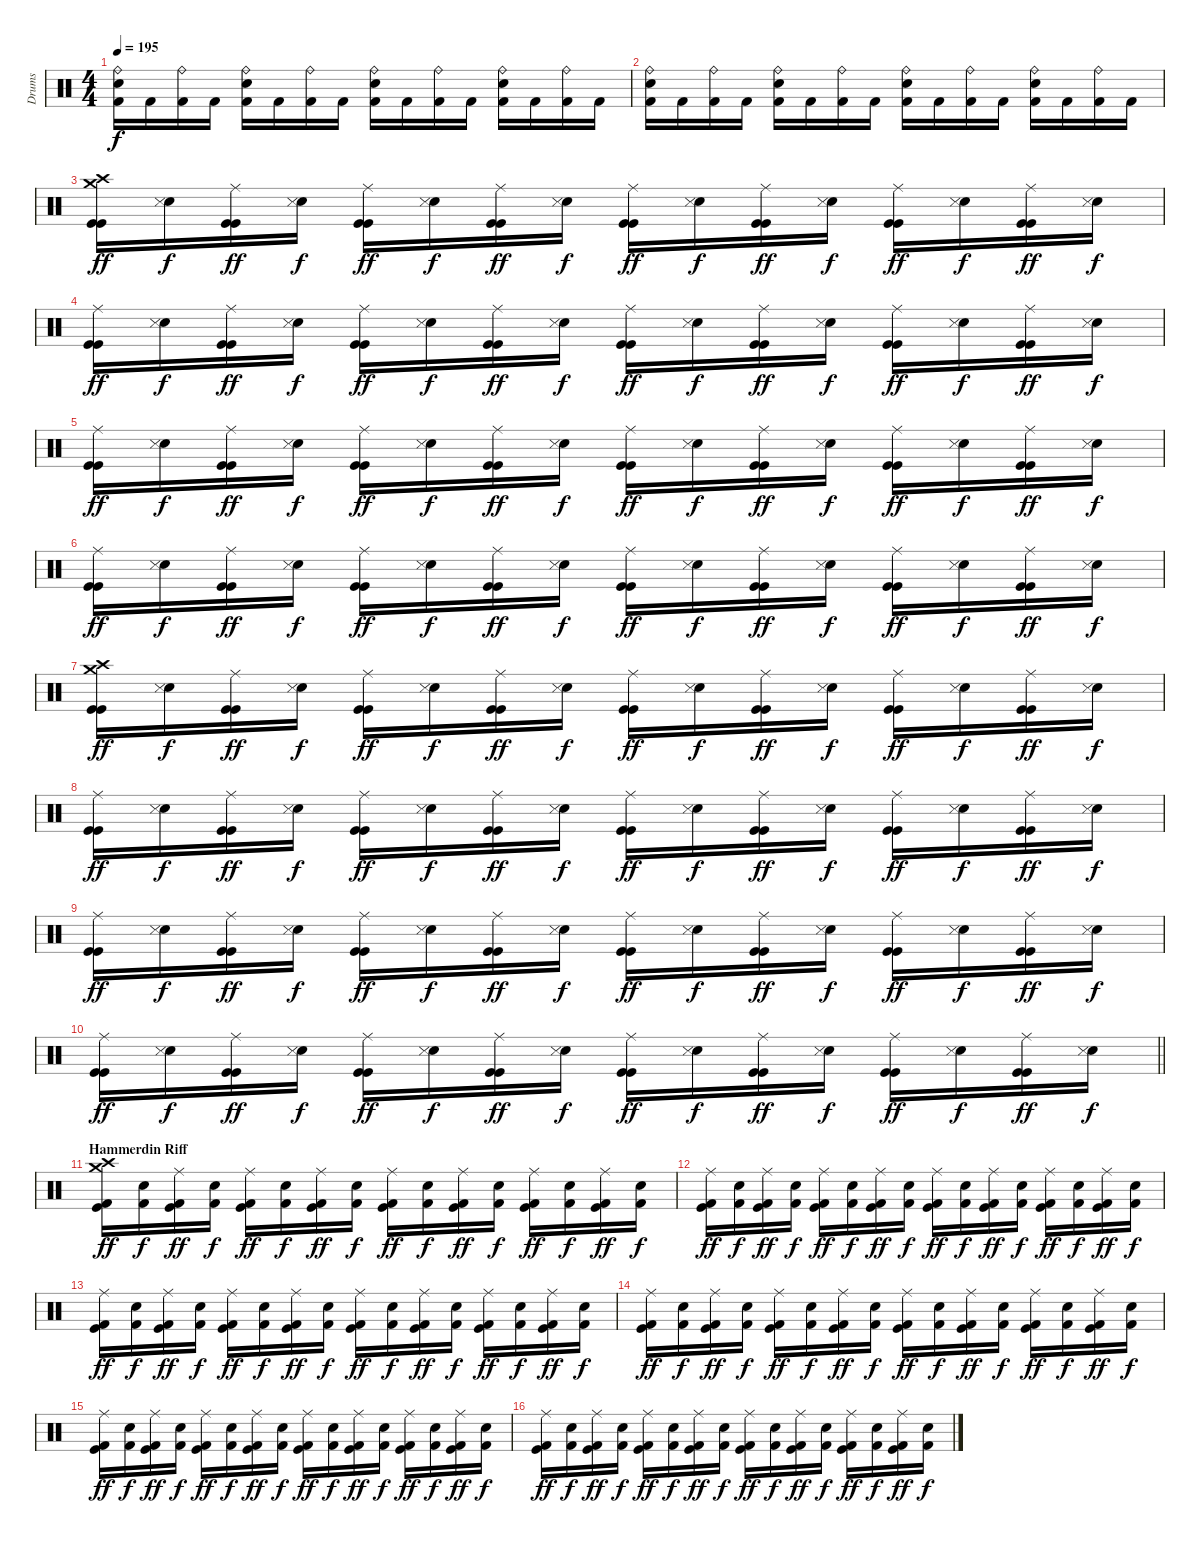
\track ("Drums" "Drums") {instrument percussion}
\staff {score}
\articulation defaults
\ts (4 4)
\tempo 195
\clef neutral
\ks c
("Ride (bell)" "Snare (hit) 2" "Kick (hit) 2").16{dy f} "Kick (hit) 2".16 ("Ride (bell)" "Kick (hit) 2").16 "Kick (hit) 2".16 ("Ride (bell)" "Snare (hit) 2" "Kick (hit) 2").16 "Kick (hit) 2".16 ("Ride (bell)" "Kick (hit) 2").16 "Kick (hit) 2".16 ("Ride (bell)" "Snare (hit) 2" "Kick (hit) 2").16 "Kick (hit) 2".16 ("Ride (bell)" "Kick (hit) 2").16 "Kick (hit) 2".16 ("Ride (bell)" "Snare (hit) 2" "Kick (hit) 2").16 "Kick (hit) 2".16 ("Ride (bell)" "Kick (hit) 2").16 "Kick (hit) 2".16 |
("Ride (bell)" "Snare (hit) 2" "Kick (hit) 2").16 "Kick (hit) 2".16 ("Ride (bell)" "Kick (hit) 2").16 "Kick (hit) 2".16 ("Ride (bell)" "Snare (hit) 2" "Kick (hit) 2").16 "Kick (hit) 2".16 ("Ride (bell)" "Kick (hit) 2").16 "Kick (hit) 2".16 ("Ride (bell)" "Snare (hit) 2" "Kick (hit) 2").16 "Kick (hit) 2".16 ("Ride (bell)" "Kick (hit) 2").16 "Kick (hit) 2".16 ("Ride (bell)" "Snare (hit) 2" "Kick (hit) 2").16 "Kick (hit) 2".16 ("Ride (bell)" "Kick (hit) 2").16 "Kick (hit) 2".16 |
("Crash medium (hit)" "Crash high (hit)" "Kick (hit)" "Kick (hit)").16{dy ff} ("Electric Snare (hit)" "Snare (side stick) 3").16{dy f} ("Ride (middle)" "Kick (hit)" "Kick (hit)").16{dy ff} ("Electric Snare (hit)" "Snare (side stick) 3").16{dy f} ("Ride (middle)" "Kick (hit)" "Kick (hit)").16{dy ff} ("Electric Snare (hit)" "Snare (side stick) 3").16{dy f} ("Ride (middle)" "Kick (hit)" "Kick (hit)").16{dy ff} ("Electric Snare (hit)" "Snare (side stick) 3").16{dy f} ("Ride (middle)" "Kick (hit)" "Kick (hit)").16{dy ff} ("Electric Snare (hit)" "Snare (side stick) 3").16{dy f} ("Ride (middle)" "Kick (hit)" "Kick (hit)").16{dy ff} ("Electric Snare (hit)" "Snare (side stick) 3").16{dy f} ("Ride (middle)" "Kick (hit)" "Kick (hit)").16{dy ff} ("Electric Snare (hit)" "Snare (side stick) 3").16{dy f} ("Ride (middle)" "Kick (hit)" "Kick (hit)").16{dy ff} ("Electric Snare (hit)" "Snare (side stick) 3").16{dy f} |
("Ride (middle)" "Kick (hit)" "Kick (hit)").16{dy ff} ("Electric Snare (hit)" "Snare (side stick) 3").16{dy f} ("Ride (middle)" "Kick (hit)" "Kick (hit)").16{dy ff} ("Electric Snare (hit)" "Snare (side stick) 3").16{dy f} ("Ride (middle)" "Kick (hit)" "Kick (hit)").16{dy ff} ("Electric Snare (hit)" "Snare (side stick) 3").16{dy f} ("Ride (middle)" "Kick (hit)" "Kick (hit)").16{dy ff} ("Electric Snare (hit)" "Snare (side stick) 3").16{dy f} ("Ride (middle)" "Kick (hit)" "Kick (hit)").16{dy ff} ("Electric Snare (hit)" "Snare (side stick) 3").16{dy f} ("Ride (middle)" "Kick (hit)" "Kick (hit)").16{dy ff} ("Electric Snare (hit)" "Snare (side stick) 3").16{dy f} ("Ride (middle)" "Kick (hit)" "Kick (hit)").16{dy ff} ("Electric Snare (hit)" "Snare (side stick) 3").16{dy f} ("Ride (middle)" "Kick (hit)" "Kick (hit)").16{dy ff} ("Electric Snare (hit)" "Snare (side stick) 3").16{dy f} |
("Ride (middle)" "Kick (hit)" "Kick (hit)").16{dy ff} ("Electric Snare (hit)" "Snare (side stick) 3").16{dy f} ("Ride (middle)" "Kick (hit)" "Kick (hit)").16{dy ff} ("Electric Snare (hit)" "Snare (side stick) 3").16{dy f} ("Ride (middle)" "Kick (hit)" "Kick (hit)").16{dy ff} ("Electric Snare (hit)" "Snare (side stick) 3").16{dy f} ("Ride (middle)" "Kick (hit)" "Kick (hit)").16{dy ff} ("Electric Snare (hit)" "Snare (side stick) 3").16{dy f} ("Ride (middle)" "Kick (hit)" "Kick (hit)").16{dy ff} ("Electric Snare (hit)" "Snare (side stick) 3").16{dy f} ("Ride (middle)" "Kick (hit)" "Kick (hit)").16{dy ff} ("Electric Snare (hit)" "Snare (side stick) 3").16{dy f} ("Ride (middle)" "Kick (hit)" "Kick (hit)").16{dy ff} ("Electric Snare (hit)" "Snare (side stick) 3").16{dy f} ("Ride (middle)" "Kick (hit)" "Kick (hit)").16{dy ff} ("Electric Snare (hit)" "Snare (side stick) 3").16{dy f} |
("Ride (middle)" "Kick (hit)" "Kick (hit)").16{dy ff} ("Electric Snare (hit)" "Snare (side stick) 3").16{dy f} ("Ride (middle)" "Kick (hit)" "Kick (hit)").16{dy ff} ("Electric Snare (hit)" "Snare (side stick) 3").16{dy f} ("Ride (middle)" "Kick (hit)" "Kick (hit)").16{dy ff} ("Electric Snare (hit)" "Snare (side stick) 3").16{dy f} ("Ride (middle)" "Kick (hit)" "Kick (hit)").16{dy ff} ("Electric Snare (hit)" "Snare (side stick) 3").16{dy f} ("Ride (middle)" "Kick (hit)" "Kick (hit)").16{dy ff} ("Electric Snare (hit)" "Snare (side stick) 3").16{dy f} ("Ride (middle)" "Kick (hit)" "Kick (hit)").16{dy ff} ("Electric Snare (hit)" "Snare (side stick) 3").16{dy f} ("Ride (middle)" "Kick (hit)" "Kick (hit)").16{dy ff} ("Electric Snare (hit)" "Snare (side stick) 3").16{dy f} ("Ride (middle)" "Kick (hit)" "Kick (hit)").16{dy ff} ("Electric Snare (hit)" "Snare (side stick) 3").16{dy f} |
("Crash medium (hit)" "Crash high (hit)" "Kick (hit)" "Kick (hit)").16{dy ff} ("Electric Snare (hit)" "Snare (side stick) 3").16{dy f} ("Ride (middle)" "Kick (hit)" "Kick (hit)").16{dy ff} ("Electric Snare (hit)" "Snare (side stick) 3").16{dy f} ("Ride (middle)" "Kick (hit)" "Kick (hit)").16{dy ff} ("Electric Snare (hit)" "Snare (side stick) 3").16{dy f} ("Ride (middle)" "Kick (hit)" "Kick (hit)").16{dy ff} ("Electric Snare (hit)" "Snare (side stick) 3").16{dy f} ("Ride (middle)" "Kick (hit)" "Kick (hit)").16{dy ff} ("Electric Snare (hit)" "Snare (side stick) 3").16{dy f} ("Ride (middle)" "Kick (hit)" "Kick (hit)").16{dy ff} ("Electric Snare (hit)" "Snare (side stick) 3").16{dy f} ("Ride (middle)" "Kick (hit)" "Kick (hit)").16{dy ff} ("Electric Snare (hit)" "Snare (side stick) 3").16{dy f} ("Ride (middle)" "Kick (hit)" "Kick (hit)").16{dy ff} ("Electric Snare (hit)" "Snare (side stick) 3").16{dy f} |
("Ride (middle)" "Kick (hit)" "Kick (hit)").16{dy ff} ("Electric Snare (hit)" "Snare (side stick) 3").16{dy f} ("Ride (middle)" "Kick (hit)" "Kick (hit)").16{dy ff} ("Electric Snare (hit)" "Snare (side stick) 3").16{dy f} ("Ride (middle)" "Kick (hit)" "Kick (hit)").16{dy ff} ("Electric Snare (hit)" "Snare (side stick) 3").16{dy f} ("Ride (middle)" "Kick (hit)" "Kick (hit)").16{dy ff} ("Electric Snare (hit)" "Snare (side stick) 3").16{dy f} ("Ride (middle)" "Kick (hit)" "Kick (hit)").16{dy ff} ("Electric Snare (hit)" "Snare (side stick) 3").16{dy f} ("Ride (middle)" "Kick (hit)" "Kick (hit)").16{dy ff} ("Electric Snare (hit)" "Snare (side stick) 3").16{dy f} ("Ride (middle)" "Kick (hit)" "Kick (hit)").16{dy ff} ("Electric Snare (hit)" "Snare (side stick) 3").16{dy f} ("Ride (middle)" "Kick (hit)" "Kick (hit)").16{dy ff} ("Electric Snare (hit)" "Snare (side stick) 3").16{dy f} |
("Ride (middle)" "Kick (hit)" "Kick (hit)").16{dy ff} ("Electric Snare (hit)" "Snare (side stick) 3").16{dy f} ("Ride (middle)" "Kick (hit)" "Kick (hit)").16{dy ff} ("Electric Snare (hit)" "Snare (side stick) 3").16{dy f} ("Ride (middle)" "Kick (hit)" "Kick (hit)").16{dy ff} ("Electric Snare (hit)" "Snare (side stick) 3").16{dy f} ("Ride (middle)" "Kick (hit)" "Kick (hit)").16{dy ff} ("Electric Snare (hit)" "Snare (side stick) 3").16{dy f} ("Ride (middle)" "Kick (hit)" "Kick (hit)").16{dy ff} ("Electric Snare (hit)" "Snare (side stick) 3").16{dy f} ("Ride (middle)" "Kick (hit)" "Kick (hit)").16{dy ff} ("Electric Snare (hit)" "Snare (side stick) 3").16{dy f} ("Ride (middle)" "Kick (hit)" "Kick (hit)").16{dy ff} ("Electric Snare (hit)" "Snare (side stick) 3").16{dy f} ("Ride (middle)" "Kick (hit)" "Kick (hit)").16{dy ff} ("Electric Snare (hit)" "Snare (side stick) 3").16{dy f} |
\barLineRight lightlight
("Ride (middle)" "Kick (hit)" "Kick (hit)").16{dy ff} ("Electric Snare (hit)" "Snare (side stick) 3").16{dy f} ("Ride (middle)" "Kick (hit)" "Kick (hit)").16{dy ff} ("Electric Snare (hit)" "Snare (side stick) 3").16{dy f} ("Ride (middle)" "Kick (hit)" "Kick (hit)").16{dy ff} ("Electric Snare (hit)" "Snare (side stick) 3").16{dy f} ("Ride (middle)" "Kick (hit)" "Kick (hit)").16{dy ff} ("Electric Snare (hit)" "Snare (side stick) 3").16{dy f} ("Ride (middle)" "Kick (hit)" "Kick (hit)").16{dy ff} ("Electric Snare (hit)" "Snare (side stick) 3").16{dy f} ("Ride (middle)" "Kick (hit)" "Kick (hit)").16{dy ff} ("Electric Snare (hit)" "Snare (side stick) 3").16{dy f} ("Ride (middle)" "Kick (hit)" "Kick (hit)").16{dy ff} ("Electric Snare (hit)" "Snare (side stick) 3").16{dy f} ("Ride (middle)" "Kick (hit)" "Kick (hit)").16{dy ff} ("Electric Snare (hit)" "Snare (side stick) 3").16{dy f} |
\section ("" "Hammerdin Riff")
("Crash medium (hit)" "Crash high (hit)" "Kick (hit)" "Kick (hit) 2").16{dy ff} ("Electric Snare (hit)" "Kick (hit) 2").16{dy f} ("Ride (middle)" "Kick (hit)" "Kick (hit) 2").16{dy ff} ("Electric Snare (hit)" "Kick (hit) 2").16{dy f} ("Ride (middle)" "Kick (hit)" "Kick (hit) 2").16{dy ff} ("Electric Snare (hit)" "Kick (hit) 2").16{dy f} ("Ride (middle)" "Kick (hit)" "Kick (hit) 2").16{dy ff} ("Electric Snare (hit)" "Kick (hit) 2").16{dy f} ("Ride (middle)" "Kick (hit)" "Kick (hit) 2").16{dy ff} ("Electric Snare (hit)" "Kick (hit) 2").16{dy f} ("Ride (middle)" "Kick (hit)" "Kick (hit) 2").16{dy ff} ("Electric Snare (hit)" "Kick (hit) 2").16{dy f} ("Ride (middle)" "Kick (hit)" "Kick (hit) 2").16{dy ff} ("Electric Snare (hit)" "Kick (hit) 2").16{dy f} ("Ride (middle)" "Kick (hit)" "Kick (hit) 2").16{dy ff} ("Electric Snare (hit)" "Kick (hit) 2").16{dy f} |
("Ride (middle)" "Kick (hit)" "Kick (hit) 2").16{dy ff} ("Electric Snare (hit)" "Kick (hit) 2").16{dy f} ("Ride (middle)" "Kick (hit)" "Kick (hit) 2").16{dy ff} ("Electric Snare (hit)" "Kick (hit) 2").16{dy f} ("Ride (middle)" "Kick (hit)" "Kick (hit) 2").16{dy ff} ("Electric Snare (hit)" "Kick (hit) 2").16{dy f} ("Ride (middle)" "Kick (hit)" "Kick (hit) 2").16{dy ff} ("Electric Snare (hit)" "Kick (hit) 2").16{dy f} ("Ride (middle)" "Kick (hit)" "Kick (hit) 2").16{dy ff} ("Electric Snare (hit)" "Kick (hit) 2").16{dy f} ("Ride (middle)" "Kick (hit)" "Kick (hit) 2").16{dy ff} ("Electric Snare (hit)" "Kick (hit) 2").16{dy f} ("Ride (middle)" "Kick (hit)" "Kick (hit) 2").16{dy ff} ("Electric Snare (hit)" "Kick (hit) 2").16{dy f} ("Ride (middle)" "Kick (hit)" "Kick (hit) 2").16{dy ff} ("Electric Snare (hit)" "Kick (hit) 2").16{dy f} |
("Ride (middle)" "Kick (hit)" "Kick (hit) 2").16{dy ff} ("Electric Snare (hit)" "Kick (hit) 2").16{dy f} ("Ride (middle)" "Kick (hit)" "Kick (hit) 2").16{dy ff} ("Electric Snare (hit)" "Kick (hit) 2").16{dy f} ("Ride (middle)" "Kick (hit)" "Kick (hit) 2").16{dy ff} ("Electric Snare (hit)" "Kick (hit) 2").16{dy f} ("Ride (middle)" "Kick (hit)" "Kick (hit) 2").16{dy ff} ("Electric Snare (hit)" "Kick (hit) 2").16{dy f} ("Ride (middle)" "Kick (hit)" "Kick (hit) 2").16{dy ff} ("Electric Snare (hit)" "Kick (hit) 2").16{dy f} ("Ride (middle)" "Kick (hit)" "Kick (hit) 2").16{dy ff} ("Electric Snare (hit)" "Kick (hit) 2").16{dy f} ("Ride (middle)" "Kick (hit)" "Kick (hit) 2").16{dy ff} ("Electric Snare (hit)" "Kick (hit) 2").16{dy f} ("Ride (middle)" "Kick (hit)" "Kick (hit) 2").16{dy ff} ("Electric Snare (hit)" "Kick (hit) 2").16{dy f} |
("Ride (middle)" "Kick (hit)" "Kick (hit) 2").16{dy ff} ("Electric Snare (hit)" "Kick (hit) 2").16{dy f} ("Ride (middle)" "Kick (hit)" "Kick (hit) 2").16{dy ff} ("Electric Snare (hit)" "Kick (hit) 2").16{dy f} ("Ride (middle)" "Kick (hit)" "Kick (hit) 2").16{dy ff} ("Electric Snare (hit)" "Kick (hit) 2").16{dy f} ("Ride (middle)" "Kick (hit)" "Kick (hit) 2").16{dy ff} ("Electric Snare (hit)" "Kick (hit) 2").16{dy f} ("Ride (middle)" "Kick (hit)" "Kick (hit) 2").16{dy ff} ("Electric Snare (hit)" "Kick (hit) 2").16{dy f} ("Ride (middle)" "Kick (hit)" "Kick (hit) 2").16{dy ff} ("Electric Snare (hit)" "Kick (hit) 2").16{dy f} ("Ride (middle)" "Kick (hit)" "Kick (hit) 2").16{dy ff} ("Electric Snare (hit)" "Kick (hit) 2").16{dy f} ("Ride (middle)" "Kick (hit)" "Kick (hit) 2").16{dy ff} ("Electric Snare (hit)" "Kick (hit) 2").16{dy f} |
("Ride (middle)" "Kick (hit)" "Kick (hit) 2").16{dy ff} ("Electric Snare (hit)" "Kick (hit) 2").16{dy f} ("Ride (middle)" "Kick (hit)" "Kick (hit) 2").16{dy ff} ("Electric Snare (hit)" "Kick (hit) 2").16{dy f} ("Ride (middle)" "Kick (hit)" "Kick (hit) 2").16{dy ff} ("Electric Snare (hit)" "Kick (hit) 2").16{dy f} ("Ride (middle)" "Kick (hit)" "Kick (hit) 2").16{dy ff} ("Electric Snare (hit)" "Kick (hit) 2").16{dy f} ("Ride (middle)" "Kick (hit)" "Kick (hit) 2").16{dy ff} ("Electric Snare (hit)" "Kick (hit) 2").16{dy f} ("Ride (middle)" "Kick (hit)" "Kick (hit) 2").16{dy ff} ("Electric Snare (hit)" "Kick (hit) 2").16{dy f} ("Ride (middle)" "Kick (hit)" "Kick (hit) 2").16{dy ff} ("Electric Snare (hit)" "Kick (hit) 2").16{dy f} ("Ride (middle)" "Kick (hit)" "Kick (hit) 2").16{dy ff} ("Electric Snare (hit)" "Kick (hit) 2").16{dy f} |
("Ride (middle)" "Kick (hit)" "Kick (hit) 2").16{dy ff} ("Electric Snare (hit)" "Kick (hit) 2").16{dy f} ("Ride (middle)" "Kick (hit)" "Kick (hit) 2").16{dy ff} ("Electric Snare (hit)" "Kick (hit) 2").16{dy f} ("Ride (middle)" "Kick (hit)" "Kick (hit) 2").16{dy ff} ("Electric Snare (hit)" "Kick (hit) 2").16{dy f} ("Ride (middle)" "Kick (hit)" "Kick (hit) 2").16{dy ff} ("Electric Snare (hit)" "Kick (hit) 2").16{dy f} ("Ride (middle)" "Kick (hit)" "Kick (hit) 2").16{dy ff} ("Electric Snare (hit)" "Kick (hit) 2").16{dy f} ("Ride (middle)" "Kick (hit)" "Kick (hit) 2").16{dy ff} ("Electric Snare (hit)" "Kick (hit) 2").16{dy f} ("Ride (middle)" "Kick (hit)" "Kick (hit) 2").16{dy ff} ("Electric Snare (hit)" "Kick (hit) 2").16{dy f} ("Ride (middle)" "Kick (hit)" "Kick (hit) 2").16{dy ff} ("Electric Snare (hit)" "Kick (hit) 2").16{dy f}
